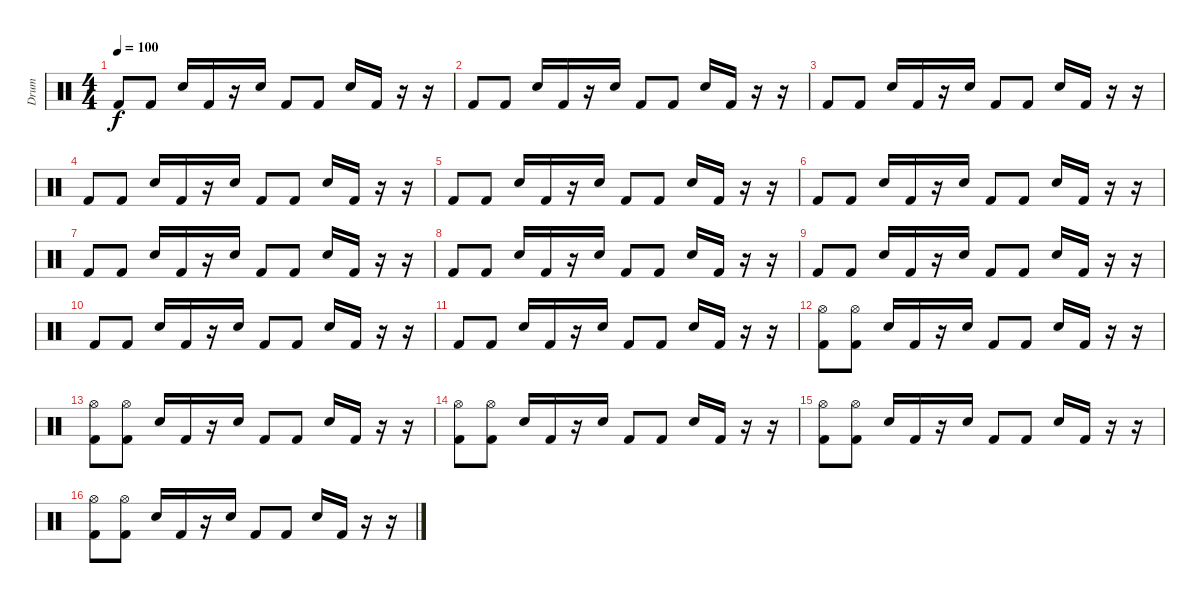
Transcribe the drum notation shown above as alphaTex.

\track ("Drum" "Drum") {instrument percussion}
\staff {score}
\articulation defaults
\ts (4 4)
\tempo 100
\clef neutral
\ks c "Kick (hit) 2".8{dy f} "Kick (hit) 2".8 "Electric Snare (hit)".16 "Kick (hit) 2".16
r.16 "Electric Snare (hit)".16 "Kick (hit) 2".8 "Kick (hit) 2".8 "Electric Snare (hit)".16 "Kick (hit) 2".16 r.16 r.16 |
"Kick (hit) 2".8 "Kick (hit) 2".8 "Electric Snare (hit)".16 "Kick (hit) 2".16 r.16 "Electric Snare (hit)".16 "Kick (hit) 2".8 "Kick (hit) 2".8 "Electric Snare (hit)".16 "Kick (hit) 2".16 r.16 r.16 |
"Kick (hit) 2".8 "Kick (hit) 2".8 "Electric Snare (hit)".16 "Kick (hit) 2".16 r.16 "Electric Snare (hit)".16 "Kick (hit) 2".8 "Kick (hit) 2".8 "Electric Snare (hit)".16 "Kick (hit) 2".16 r.16 r.16 |
"Kick (hit) 2".8 "Kick (hit) 2".8 "Electric Snare (hit)".16 "Kick (hit) 2".16 r.16 "Electric Snare (hit)".16 "Kick (hit) 2".8 "Kick (hit) 2".8 "Electric Snare (hit)".16 "Kick (hit) 2".16 r.16 r.16 |
"Kick (hit) 2".8 "Kick (hit) 2".8 "Electric Snare (hit)".16 "Kick (hit) 2".16 r.16 "Electric Snare (hit)".16 "Kick (hit) 2".8 "Kick (hit) 2".8 "Electric Snare (hit)".16 "Kick (hit) 2".16 r.16 r.16 |
"Kick (hit) 2".8 "Kick (hit) 2".8 "Electric Snare (hit)".16 "Kick (hit) 2".16 r.16 "Electric Snare (hit)".16 "Kick (hit) 2".8 "Kick (hit) 2".8 "Electric Snare (hit)".16 "Kick (hit) 2".16 r.16 r.16 |
"Kick (hit) 2".8 "Kick (hit) 2".8 "Electric Snare (hit)".16 "Kick (hit) 2".16 r.16 "Electric Snare (hit)".16 "Kick (hit) 2".8 "Kick (hit) 2".8 "Electric Snare (hit)".16 "Kick (hit) 2".16 r.16 r.16 |
"Kick (hit) 2".8 "Kick (hit) 2".8 "Electric Snare (hit)".16 "Kick (hit) 2".16 r.16 "Electric Snare (hit)".16 "Kick (hit) 2".8 "Kick (hit) 2".8 "Electric Snare (hit)".16 "Kick (hit) 2".16 r.16 r.16 |
"Kick (hit) 2".8 "Kick (hit) 2".8 "Electric Snare (hit)".16 "Kick (hit) 2".16 r.16 "Electric Snare (hit)".16 "Kick (hit) 2".8 "Kick (hit) 2".8 "Electric Snare (hit)".16 "Kick (hit) 2".16 r.16 r.16 |
"Kick (hit) 2".8 "Kick (hit) 2".8 "Electric Snare (hit)".16 "Kick (hit) 2".16 r.16 "Electric Snare (hit)".16 "Kick (hit) 2".8 "Kick (hit) 2".8 "Electric Snare (hit)".16 "Kick (hit) 2".16 r.16 r.16 |
"Kick (hit) 2".8 "Kick (hit) 2".8 "Electric Snare (hit)".16 "Kick (hit) 2".16 r.16 "Electric Snare (hit)".16 "Kick (hit) 2".8 "Kick (hit) 2".8 "Electric Snare (hit)".16 "Kick (hit) 2".16 r.16 r.16 |
("Hi-Hat (open)" "Kick (hit) 2").8 ("Hi-Hat (open)" "Kick (hit) 2").8 "Electric Snare (hit)".16 "Kick (hit) 2".16 r.16 "Electric Snare (hit)".16 "Kick (hit) 2".8 "Kick (hit) 2".8 "Electric Snare (hit)".16 "Kick (hit) 2".16 r.16 r.16 |
("Hi-Hat (open)" "Kick (hit) 2").8 ("Hi-Hat (open)" "Kick (hit) 2").8 "Electric Snare (hit)".16 "Kick (hit) 2".16 r.16 "Electric Snare (hit)".16 "Kick (hit) 2".8 "Kick (hit) 2".8 "Electric Snare (hit)".16 "Kick (hit) 2".16 r.16 r.16 |
("Hi-Hat (open)" "Kick (hit) 2").8 ("Hi-Hat (open)" "Kick (hit) 2").8 "Electric Snare (hit)".16 "Kick (hit) 2".16 r.16 "Electric Snare (hit)".16 "Kick (hit) 2".8 "Kick (hit) 2".8 "Electric Snare (hit)".16 "Kick (hit) 2".16 r.16 r.16 |
("Hi-Hat (open)" "Kick (hit) 2").8 ("Hi-Hat (open)" "Kick (hit) 2").8 "Electric Snare (hit)".16 "Kick (hit) 2".16 r.16 "Electric Snare (hit)".16 "Kick (hit) 2".8 "Kick (hit) 2".8 "Electric Snare (hit)".16 "Kick (hit) 2".16 r.16 r.16 |
("Hi-Hat (open)" "Kick (hit) 2").8 ("Hi-Hat (open)" "Kick (hit) 2").8 "Electric Snare (hit)".16 "Kick (hit) 2".16 r.16 "Electric Snare (hit)".16 "Kick (hit) 2".8 "Kick (hit) 2".8 "Electric Snare (hit)".16 "Kick (hit) 2".16 r.16 r.16
